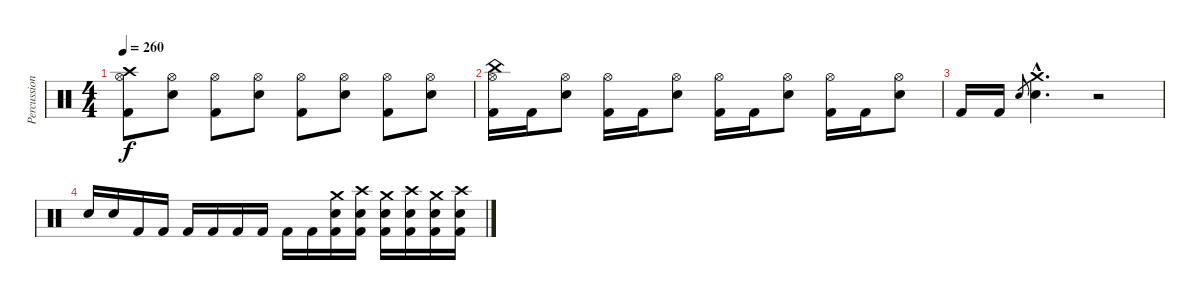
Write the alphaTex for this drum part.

\track ("Percussion" "Percussion") {instrument percussion}
\staff {score}
\articulation defaults
\ts (4 4)
\tempo 260
\clef neutral
\ks c
("Crash high (hit)" "Kick (hit) 2" "Hi-Hat (open)").8{dy f} ("Electric Snare (hit)" "Hi-Hat (open)").8 ("Kick (hit) 2" "Hi-Hat (open)").8 ("Electric Snare (hit)" "Hi-Hat (open)").8 ("Kick (hit) 2" "Hi-Hat (open)").8 ("Electric Snare (hit)" "Hi-Hat (open)").8 ("Kick (hit) 2" "Hi-Hat (open)").8 ("Electric Snare (hit)" "Hi-Hat (open)").8 |
("China (hit)" "Kick (hit) 2" "Hi-Hat (open)").16 "Kick (hit) 2".16 ("Electric Snare (hit)" "Hi-Hat (open)").8 ("Kick (hit) 2" "Hi-Hat (open)").16 "Kick (hit) 2".16 ("Electric Snare (hit)" "Hi-Hat (open)").8 ("Kick (hit) 2" "Hi-Hat (open)").16 "Kick (hit) 2".16 ("Electric Snare (hit)" "Hi-Hat (open)").8 ("Kick (hit) 2" "Hi-Hat (open)").16 "Kick (hit) 2".16 ("Electric Snare (hit)" "Hi-Hat (open)").8 |
"Kick (hit) 2".16 "Kick (hit) 2".16 "Electric Snare (hit)".8{gr} ("Crash medium (hit)"{hac} "Electric Snare (hit)"{hac}).4{d} r.2 |
"Electric Snare (hit)".16 "Electric Snare (hit)".16 "Kick (hit) 2".16 "Kick (hit) 2".16 "Kick (hit) 2".16 "Kick (hit) 2".16 "Kick (hit) 2".16 "Kick (hit) 2".16 "Kick (hit) 2".16 "Kick (hit) 2".16 ("Crash medium (hit)" "Electric Snare (hit)" "Kick (hit) 2").16 ("Crash high (hit)" "Electric Snare (hit)" "Kick (hit) 2").16 ("Crash medium (hit)" "Electric Snare (hit)" "Kick (hit) 2").16 ("Crash high (hit)" "Electric Snare (hit)" "Kick (hit) 2").16 ("Crash medium (hit)" "Electric Snare (hit)" "Kick (hit) 2").16 ("Crash high (hit)" "Electric Snare (hit)" "Kick (hit) 2").16
